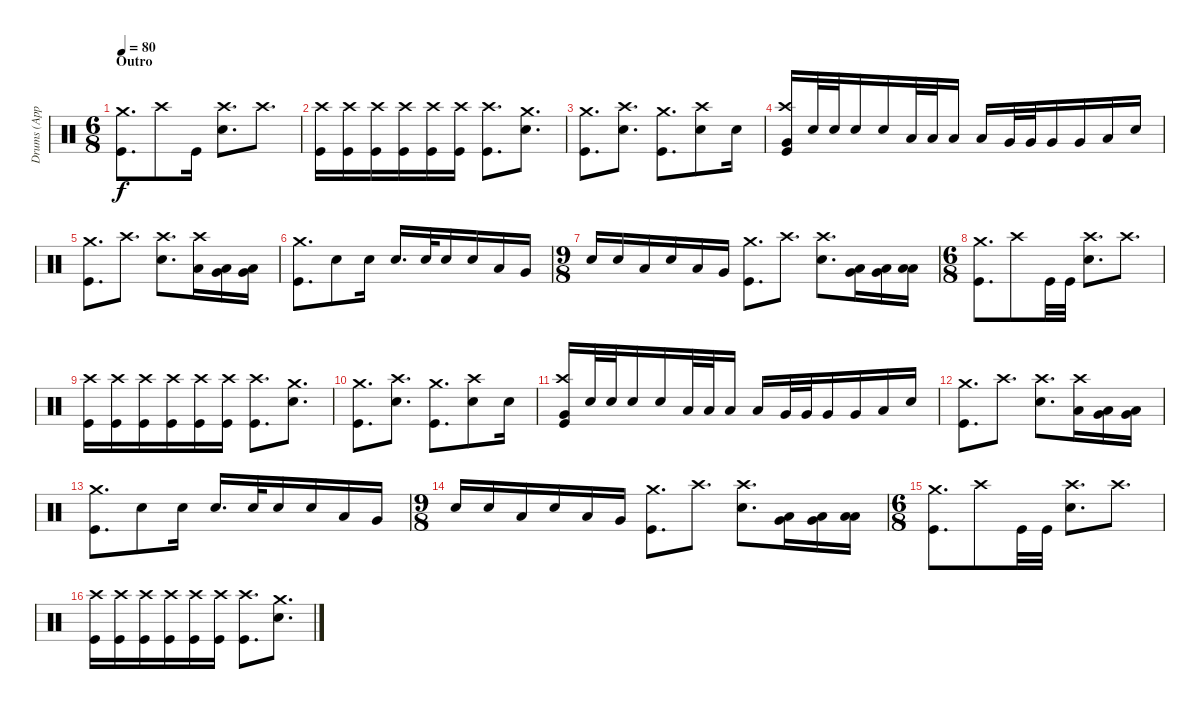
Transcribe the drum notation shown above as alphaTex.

\track ("Drums (Appelhans/Durst)" "Drums (App") {instrument percussion}
\staff {score}
\articulation defaults
\ts (6 8)
\section ("" "Outro")
\tempo 80
\clef neutral
\ks c
("Kick (hit)" "Crash medium (hit)").8{d dy f} "Crash high (hit)".8 "Kick (hit)".16 ("Snare (hit) 2" "Crash high (hit)").8{d} "Crash high (hit)".8{d} |
("Kick (hit)" "Crash high (hit)").16 ("Kick (hit)" "Crash high (hit)").16 ("Kick (hit)" "Crash high (hit)").16 ("Kick (hit)" "Crash high (hit)").16 ("Kick (hit)" "Crash high (hit)").16 ("Kick (hit)" "Crash high (hit)").16 ("Kick (hit)" "Crash high (hit)").8{d} ("Snare (hit) 2" "Crash medium (hit)").8{d} |
("Kick (hit)" "Crash medium (hit)").8{d} ("Snare (hit) 2" "Crash high (hit)").8{d} ("Kick (hit)" "Crash medium (hit)").8{d} ("Snare (hit) 2" "Crash high (hit)").8 "Snare (hit) 2".16 |
("Kick (hit)" "Very Low Tom (hit)" "Crash high (hit)").16 "Snare (hit) 2".32 "Snare (hit) 2".32 "Snare (hit) 2".16 "Snare (hit) 2".16 "Low Tom (hit)".32 "Low Tom (hit)".32 "Low Tom (hit)".16 "Low Tom (hit)".16 "Very Low Tom (hit)".32 "Very Low Tom (hit)".32 "Very Low Tom (hit)".16 "Very Low Tom (hit)".16 "Low Floor Tom (hit)".16 "Snare (hit) 2".16 |
("Kick (hit)" "Crash medium (hit)").8{d} "Crash high (hit)".8{d} ("Crash high (hit)" "Snare (hit) 2").8{d} ("Crash high (hit)" "Low Tom (hit)").16 ("Low Tom (hit)" "Very Low Tom (hit)").16 ("Low Tom (hit)" "Very Low Tom (hit)").16 |
("Kick (hit)" "Crash medium (hit)").8{d} "Snare (hit) 2".8 "Snare (hit) 2".16 "Snare (hit) 2".16{d} "Snare (hit) 2".32 "Snare (hit) 2".16 "Snare (hit) 2".16 "Low Tom (hit)".16 "Very Low Tom (hit)".16 |
\ts (9 8)
"Snare (hit) 2".16 "Snare (hit) 2".16 "Low Tom (hit)".16 "Snare (hit) 2".16 "Low Tom (hit)".16 "Very Low Tom (hit)".16 ("Crash medium (hit)" "Kick (hit)").8{d} "Crash high (hit)".8{d} ("Crash high (hit)" "Snare (hit) 2").8{d} ("Low Tom (hit)" "Very Low Tom (hit)").16 ("Low Tom (hit)" "Very Low Tom (hit)").16 ("Low Tom (hit)" "Low Floor Tom (hit)").16 |
\ts (6 8)
("Kick (hit)" "Crash medium (hit)").8{d} "Crash high (hit)".8 "Kick (hit)".32 "Kick (hit)".32 ("Snare (hit) 2" "Crash high (hit)").8{d} "Crash high (hit)".8{d} |
("Kick (hit)" "Crash high (hit)").16 ("Kick (hit)" "Crash high (hit)").16 ("Kick (hit)" "Crash high (hit)").16 ("Kick (hit)" "Crash high (hit)").16 ("Kick (hit)" "Crash high (hit)").16 ("Kick (hit)" "Crash high (hit)").16 ("Kick (hit)" "Crash high (hit)").8{d} ("Snare (hit) 2" "Crash medium (hit)").8{d} |
("Kick (hit)" "Crash medium (hit)").8{d} ("Snare (hit) 2" "Crash high (hit)").8{d} ("Kick (hit)" "Crash medium (hit)").8{d} ("Snare (hit) 2" "Crash high (hit)").8 "Snare (hit) 2".16 |
("Kick (hit)" "Very Low Tom (hit)" "Crash high (hit)").16 "Snare (hit) 2".32 "Snare (hit) 2".32 "Snare (hit) 2".16 "Snare (hit) 2".16 "Low Tom (hit)".32 "Low Tom (hit)".32 "Low Tom (hit)".16 "Low Tom (hit)".16 "Very Low Tom (hit)".32 "Very Low Tom (hit)".32 "Very Low Tom (hit)".16 "Very Low Tom (hit)".16 "Low Floor Tom (hit)".16 "Snare (hit) 2".16 |
("Kick (hit)" "Crash medium (hit)").8{d} "Crash high (hit)".8{d} ("Crash high (hit)" "Snare (hit) 2").8{d} ("Crash high (hit)" "Low Tom (hit)").16 ("Low Tom (hit)" "Very Low Tom (hit)").16 ("Low Tom (hit)" "Very Low Tom (hit)").16 |
("Kick (hit)" "Crash medium (hit)").8{d} "Snare (hit) 2".8 "Snare (hit) 2".16 "Snare (hit) 2".16{d} "Snare (hit) 2".32 "Snare (hit) 2".16 "Snare (hit) 2".16 "Low Tom (hit)".16 "Very Low Tom (hit)".16 |
\ts (9 8)
"Snare (hit) 2".16 "Snare (hit) 2".16 "Low Tom (hit)".16 "Snare (hit) 2".16 "Low Tom (hit)".16 "Very Low Tom (hit)".16 ("Crash medium (hit)" "Kick (hit)").8{d} "Crash high (hit)".8{d} ("Crash high (hit)" "Snare (hit) 2").8{d} ("Low Tom (hit)" "Very Low Tom (hit)").16 ("Low Tom (hit)" "Very Low Tom (hit)").16 ("Low Tom (hit)" "Low Floor Tom (hit)").16 |
\ts (6 8)
("Kick (hit)" "Crash medium (hit)").8{d} "Crash high (hit)".8 "Kick (hit)".32 "Kick (hit)".32 ("Snare (hit) 2" "Crash high (hit)").8{d} "Crash high (hit)".8{d} |
("Kick (hit)" "Crash high (hit)").16 ("Kick (hit)" "Crash high (hit)").16 ("Kick (hit)" "Crash high (hit)").16 ("Kick (hit)" "Crash high (hit)").16 ("Kick (hit)" "Crash high (hit)").16 ("Kick (hit)" "Crash high (hit)").16 ("Kick (hit)" "Crash high (hit)").8{d} ("Snare (hit) 2" "Crash medium (hit)").8{d}
